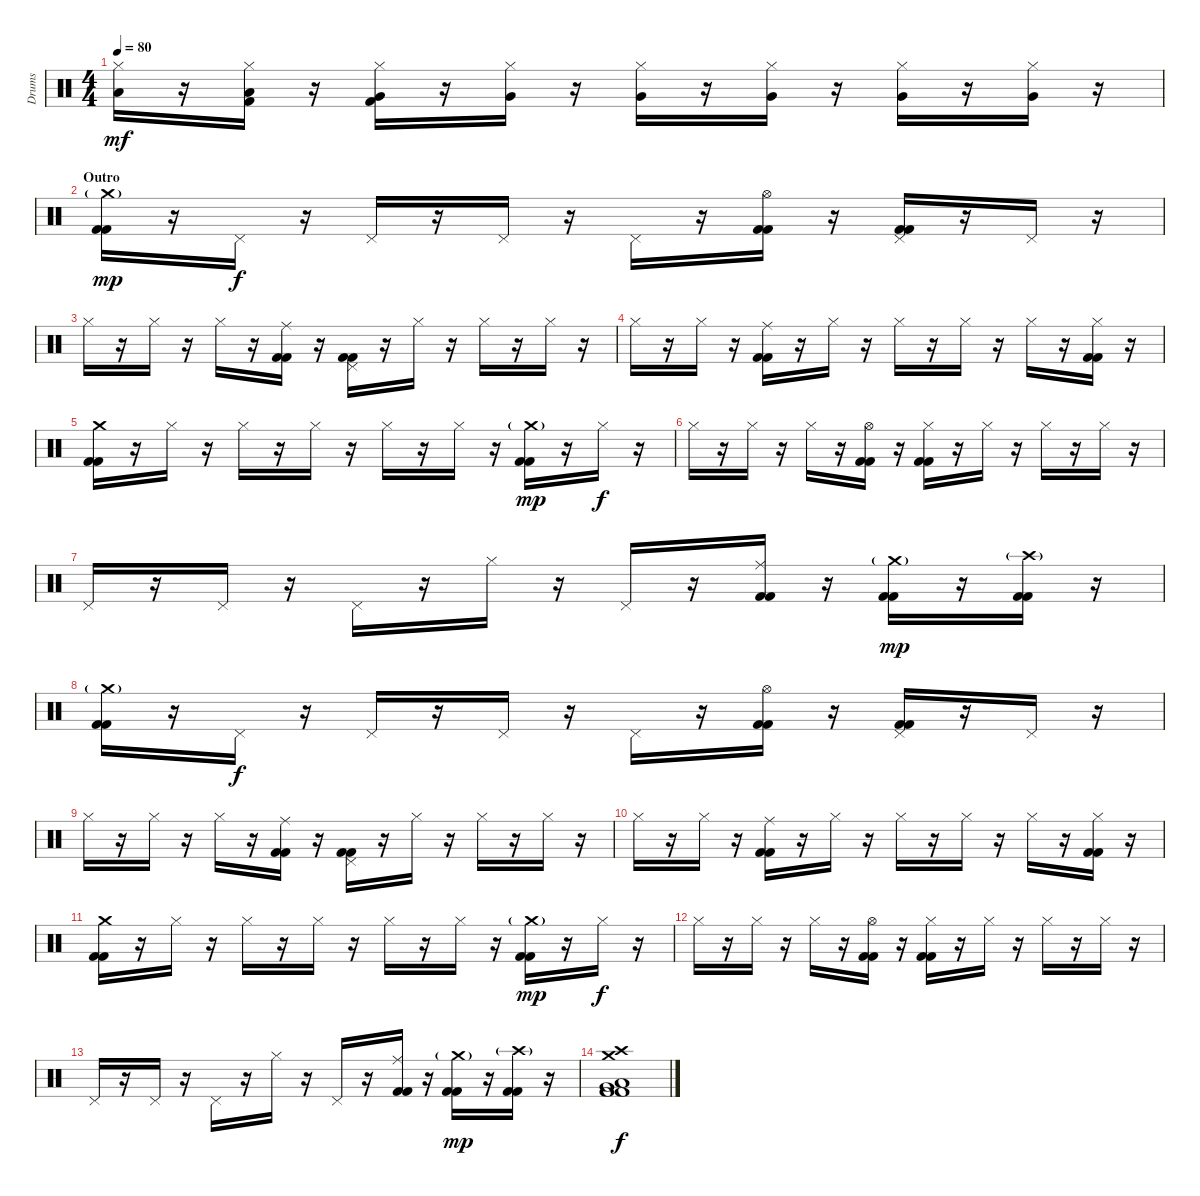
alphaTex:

\track ("Drums" "Drums") {instrument percussion}
\staff {score}
\articulation defaults
\ts (4 4)
\tempo 80
\clef neutral
\ks c
("Hi-Hat (closed)" "Low Tom (hit)").16{dy mf} r.16 ("Hi-Hat (closed)" "Low Tom (hit)" "Kick (hit) 2").16 r.16 ("Hi-Hat (closed)" "Very Low Tom (hit)" "Kick (hit) 2").16 r.16 ("Hi-Hat (closed)" "Very Low Tom (hit)").16 r.16 ("Hi-Hat (closed)" "Very Low Tom (hit)").16 r.16 ("Hi-Hat (closed)" "Very Low Tom (hit)").16 r.16 ("Hi-Hat (closed)" "Very Low Tom (hit)").16 r.16 ("Hi-Hat (closed)" "Very Low Tom (hit)").16 r.16 |
\section ("" "Outro")
("Crash medium (hit)"{g} "Kick (hit) 2" "Kick (hit) 2").16{dy mp} r.16 "Pedal Hi-Hat (hit)".16{dy f} r.16 "Pedal Hi-Hat (hit)".16 r.16 "Pedal Hi-Hat (hit)".16 r.16 "Pedal Hi-Hat (hit)".16 r.16 ("Hi-Hat (open)" "Kick (hit) 2" "Kick (hit) 2").16 r.16 ("Pedal Hi-Hat (hit)" "Kick (hit) 2" "Kick (hit) 2").16 r.16 "Pedal Hi-Hat (hit)".16 r.16 |
"Hi-Hat (closed)".16 r.16 "Hi-Hat (closed)".16 r.16 "Hi-Hat (closed)".16 r.16 ("Ride (middle)" "Kick (hit) 2" "Kick (hit) 2").16 r.16 ("Pedal Hi-Hat (hit)" "Kick (hit) 2" "Kick (hit) 2").16 r.16 "Hi-Hat (closed)".16 r.16 "Hi-Hat (closed)".16 r.16 "Hi-Hat (closed)".16 r.16 |
"Hi-Hat (closed)".16 r.16 "Hi-Hat (closed)".16 r.16 ("Ride (middle)" "Kick (hit) 2" "Kick (hit) 2").16 r.16 "Hi-Hat (closed)".16 r.16 "Hi-Hat (closed)".16 r.16 "Hi-Hat (closed)".16 r.16 "Hi-Hat (closed)".16 r.16 ("Hi-Hat (closed)" "Kick (hit) 2" "Kick (hit) 2").16 r.16 |
("Crash medium (hit)" "Kick (hit) 2" "Kick (hit) 2").16 r.16 "Hi-Hat (closed)".16 r.16 "Hi-Hat (closed)".16 r.16 "Hi-Hat (closed)".16 r.16 "Hi-Hat (closed)".16 r.16 "Hi-Hat (closed)".16 r.16 ("Crash medium (hit)"{g} "Kick (hit) 2" "Kick (hit) 2").16{dy mp} r.16 "Hi-Hat (closed)".16{dy f} r.16 |
"Hi-Hat (closed)".16 r.16 "Hi-Hat (closed)".16 r.16 "Hi-Hat (closed)".16 r.16 ("Hi-Hat (open)" "Kick (hit) 2" "Kick (hit) 2").16 r.16 ("Hi-Hat (closed)" "Kick (hit) 2" "Kick (hit) 2").16 r.16 "Hi-Hat (closed)".16 r.16 "Hi-Hat (closed)".16 r.16 "Hi-Hat (closed)".16 r.16 |
"Pedal Hi-Hat (hit)".16 r.16 "Pedal Hi-Hat (hit)".16 r.16 "Pedal Hi-Hat (hit)".16 r.16 "Hi-Hat (closed)".16 r.16 "Pedal Hi-Hat (hit)".16 r.16 ("Ride (middle)" "Kick (hit) 2" "Kick (hit) 2").16 r.16 ("Crash medium (hit)"{g} "Kick (hit) 2" "Kick (hit) 2").16{dy mp} r.16 ("Crash high (hit)"{g} "Kick (hit) 2" "Kick (hit) 2").16 r.16 |
("Crash medium (hit)"{g} "Kick (hit) 2" "Kick (hit) 2").16 r.16 "Pedal Hi-Hat (hit)".16{dy f} r.16 "Pedal Hi-Hat (hit)".16 r.16 "Pedal Hi-Hat (hit)".16 r.16 "Pedal Hi-Hat (hit)".16 r.16 ("Hi-Hat (open)" "Kick (hit) 2" "Kick (hit) 2").16 r.16 ("Pedal Hi-Hat (hit)" "Kick (hit) 2" "Kick (hit) 2").16 r.16 "Pedal Hi-Hat (hit)".16 r.16 |
"Hi-Hat (closed)".16 r.16 "Hi-Hat (closed)".16 r.16 "Hi-Hat (closed)".16 r.16 ("Ride (middle)" "Kick (hit) 2" "Kick (hit) 2").16 r.16 ("Pedal Hi-Hat (hit)" "Kick (hit) 2" "Kick (hit) 2").16 r.16 "Hi-Hat (closed)".16 r.16 "Hi-Hat (closed)".16 r.16 "Hi-Hat (closed)".16 r.16 |
"Hi-Hat (closed)".16 r.16 "Hi-Hat (closed)".16 r.16 ("Ride (middle)" "Kick (hit) 2" "Kick (hit) 2").16 r.16 "Hi-Hat (closed)".16 r.16 "Hi-Hat (closed)".16 r.16 "Hi-Hat (closed)".16 r.16 "Hi-Hat (closed)".16 r.16 ("Hi-Hat (closed)" "Kick (hit) 2" "Kick (hit) 2").16 r.16 |
("Crash medium (hit)" "Kick (hit) 2" "Kick (hit) 2").16 r.16 "Hi-Hat (closed)".16 r.16 "Hi-Hat (closed)".16 r.16 "Hi-Hat (closed)".16 r.16 "Hi-Hat (closed)".16 r.16 "Hi-Hat (closed)".16 r.16 ("Crash medium (hit)"{g} "Kick (hit) 2" "Kick (hit) 2").16{dy mp} r.16 "Hi-Hat (closed)".16{dy f} r.16 |
"Hi-Hat (closed)".16 r.16 "Hi-Hat (closed)".16 r.16 "Hi-Hat (closed)".16 r.16 ("Hi-Hat (open)" "Kick (hit) 2" "Kick (hit) 2").16 r.16 ("Hi-Hat (closed)" "Kick (hit) 2" "Kick (hit) 2").16 r.16 "Hi-Hat (closed)".16 r.16 "Hi-Hat (closed)".16 r.16 "Hi-Hat (closed)".16 r.16 |
"Pedal Hi-Hat (hit)".16 r.16 "Pedal Hi-Hat (hit)".16 r.16 "Pedal Hi-Hat (hit)".16 r.16 "Hi-Hat (closed)".16 r.16 "Pedal Hi-Hat (hit)".16 r.16 ("Ride (middle)" "Kick (hit) 2" "Kick (hit) 2").16 r.16 ("Crash medium (hit)"{g} "Kick (hit) 2" "Kick (hit) 2").16{dy mp} r.16 ("Crash high (hit)"{g} "Kick (hit) 2" "Kick (hit) 2").16 r.16 |
("Crash high (hit)" "Crash medium (hit)" "Very Low Tom (hit)" "Low Tom (hit)" "Kick (hit) 2" "Kick (hit) 2").1{dy f}
